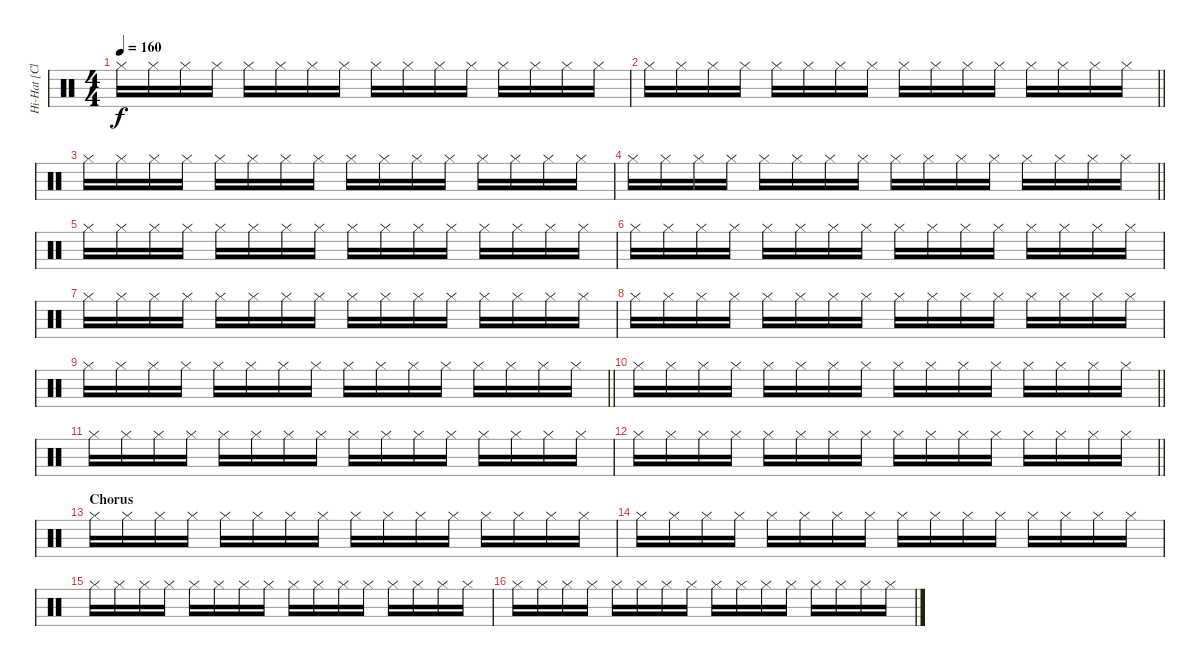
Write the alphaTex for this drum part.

\track ("Hi-Hat [Closed]" "Hi-Hat [Cl") {instrument percussion}
\staff {score}
\articulation defaults
\ts (4 4)
\tempo 160
\clef neutral
\ks c "Hi-Hat (closed)".16{dy f} "Hi-Hat (closed)".16 "Hi-Hat (closed)".16 "Hi-Hat (closed)".16 "Hi-Hat (closed)".16 "Hi-Hat (closed)".16 "Hi-Hat (closed)".16 "Hi-Hat (closed)".16 "Hi-Hat (closed)".16 "Hi-Hat (closed)".16 "Hi-Hat (closed)".16 "Hi-Hat (closed)".16 "Hi-Hat (closed)".16 "Hi-Hat (closed)".16 "Hi-Hat (closed)".16 "Hi-Hat (closed)".16
|
\barLineRight lightlight "Hi-Hat (closed)".16 "Hi-Hat (closed)".16 "Hi-Hat (closed)".16 "Hi-Hat (closed)".16 "Hi-Hat (closed)".16 "Hi-Hat (closed)".16 "Hi-Hat (closed)".16 "Hi-Hat (closed)".16 "Hi-Hat (closed)".16 "Hi-Hat (closed)".16 "Hi-Hat (closed)".16 "Hi-Hat (closed)".16 "Hi-Hat (closed)".16 "Hi-Hat (closed)".16 "Hi-Hat (closed)".16 "Hi-Hat (closed)".16
|
"Hi-Hat (closed)".16 "Hi-Hat (closed)".16 "Hi-Hat (closed)".16 "Hi-Hat (closed)".16 "Hi-Hat (closed)".16 "Hi-Hat (closed)".16 "Hi-Hat (closed)".16 "Hi-Hat (closed)".16 "Hi-Hat (closed)".16 "Hi-Hat (closed)".16 "Hi-Hat (closed)".16 "Hi-Hat (closed)".16 "Hi-Hat (closed)".16 "Hi-Hat (closed)".16 "Hi-Hat (closed)".16 "Hi-Hat (closed)".16 |
\barLineRight lightlight "Hi-Hat (closed)".16 "Hi-Hat (closed)".16 "Hi-Hat (closed)".16 "Hi-Hat (closed)".16 "Hi-Hat (closed)".16 "Hi-Hat (closed)".16 "Hi-Hat (closed)".16 "Hi-Hat (closed)".16 "Hi-Hat (closed)".16 "Hi-Hat (closed)".16 "Hi-Hat (closed)".16 "Hi-Hat (closed)".16 "Hi-Hat (closed)".16 "Hi-Hat (closed)".16 "Hi-Hat (closed)".16 "Hi-Hat (closed)".16
|
"Hi-Hat (closed)".16 "Hi-Hat (closed)".16 "Hi-Hat (closed)".16 "Hi-Hat (closed)".16 "Hi-Hat (closed)".16 "Hi-Hat (closed)".16 "Hi-Hat (closed)".16 "Hi-Hat (closed)".16 "Hi-Hat (closed)".16 "Hi-Hat (closed)".16 "Hi-Hat (closed)".16 "Hi-Hat (closed)".16 "Hi-Hat (closed)".16 "Hi-Hat (closed)".16 "Hi-Hat (closed)".16 "Hi-Hat (closed)".16 |
"Hi-Hat (closed)".16 "Hi-Hat (closed)".16 "Hi-Hat (closed)".16 "Hi-Hat (closed)".16 "Hi-Hat (closed)".16 "Hi-Hat (closed)".16 "Hi-Hat (closed)".16 "Hi-Hat (closed)".16 "Hi-Hat (closed)".16 "Hi-Hat (closed)".16 "Hi-Hat (closed)".16 "Hi-Hat (closed)".16 "Hi-Hat (closed)".16 "Hi-Hat (closed)".16 "Hi-Hat (closed)".16 "Hi-Hat (closed)".16 |
"Hi-Hat (closed)".16 "Hi-Hat (closed)".16 "Hi-Hat (closed)".16 "Hi-Hat (closed)".16 "Hi-Hat (closed)".16 "Hi-Hat (closed)".16 "Hi-Hat (closed)".16 "Hi-Hat (closed)".16 "Hi-Hat (closed)".16 "Hi-Hat (closed)".16 "Hi-Hat (closed)".16 "Hi-Hat (closed)".16 "Hi-Hat (closed)".16 "Hi-Hat (closed)".16 "Hi-Hat (closed)".16 "Hi-Hat (closed)".16 |
"Hi-Hat (closed)".16 "Hi-Hat (closed)".16 "Hi-Hat (closed)".16 "Hi-Hat (closed)".16 "Hi-Hat (closed)".16 "Hi-Hat (closed)".16 "Hi-Hat (closed)".16 "Hi-Hat (closed)".16 "Hi-Hat (closed)".16 "Hi-Hat (closed)".16 "Hi-Hat (closed)".16 "Hi-Hat (closed)".16 "Hi-Hat (closed)".16 "Hi-Hat (closed)".16 "Hi-Hat (closed)".16 "Hi-Hat (closed)".16 |
\barLineRight lightlight "Hi-Hat (closed)".16 "Hi-Hat (closed)".16 "Hi-Hat (closed)".16 "Hi-Hat (closed)".16 "Hi-Hat (closed)".16 "Hi-Hat (closed)".16 "Hi-Hat (closed)".16 "Hi-Hat (closed)".16 "Hi-Hat (closed)".16 "Hi-Hat (closed)".16 "Hi-Hat (closed)".16 "Hi-Hat (closed)".16 "Hi-Hat (closed)".16 "Hi-Hat (closed)".16 "Hi-Hat (closed)".16 "Hi-Hat (closed)".16
|
\barLineRight lightlight "Hi-Hat (closed)".16 "Hi-Hat (closed)".16 "Hi-Hat (closed)".16 "Hi-Hat (closed)".16 "Hi-Hat (closed)".16 "Hi-Hat (closed)".16 "Hi-Hat (closed)".16 "Hi-Hat (closed)".16 "Hi-Hat (closed)".16 "Hi-Hat (closed)".16 "Hi-Hat (closed)".16 "Hi-Hat (closed)".16 "Hi-Hat (closed)".16 "Hi-Hat (closed)".16 "Hi-Hat (closed)".16 "Hi-Hat (closed)".16
|
"Hi-Hat (closed)".16 "Hi-Hat (closed)".16 "Hi-Hat (closed)".16 "Hi-Hat (closed)".16 "Hi-Hat (closed)".16 "Hi-Hat (closed)".16 "Hi-Hat (closed)".16 "Hi-Hat (closed)".16 "Hi-Hat (closed)".16 "Hi-Hat (closed)".16 "Hi-Hat (closed)".16 "Hi-Hat (closed)".16 "Hi-Hat (closed)".16 "Hi-Hat (closed)".16 "Hi-Hat (closed)".16 "Hi-Hat (closed)".16 |
\barLineRight lightlight "Hi-Hat (closed)".16 "Hi-Hat (closed)".16 "Hi-Hat (closed)".16 "Hi-Hat (closed)".16 "Hi-Hat (closed)".16 "Hi-Hat (closed)".16 "Hi-Hat (closed)".16 "Hi-Hat (closed)".16 "Hi-Hat (closed)".16 "Hi-Hat (closed)".16 "Hi-Hat (closed)".16 "Hi-Hat (closed)".16 "Hi-Hat (closed)".16 "Hi-Hat (closed)".16 "Hi-Hat (closed)".16 "Hi-Hat (closed)".16
|
\section ("" "Chorus")
"Hi-Hat (closed)".16 "Hi-Hat (closed)".16 "Hi-Hat (closed)".16 "Hi-Hat (closed)".16 "Hi-Hat (closed)".16 "Hi-Hat (closed)".16 "Hi-Hat (closed)".16 "Hi-Hat (closed)".16 "Hi-Hat (closed)".16 "Hi-Hat (closed)".16 "Hi-Hat (closed)".16 "Hi-Hat (closed)".16 "Hi-Hat (closed)".16 "Hi-Hat (closed)".16 "Hi-Hat (closed)".16 "Hi-Hat (closed)".16 |
"Hi-Hat (closed)".16 "Hi-Hat (closed)".16 "Hi-Hat (closed)".16 "Hi-Hat (closed)".16 "Hi-Hat (closed)".16 "Hi-Hat (closed)".16 "Hi-Hat (closed)".16 "Hi-Hat (closed)".16 "Hi-Hat (closed)".16 "Hi-Hat (closed)".16 "Hi-Hat (closed)".16 "Hi-Hat (closed)".16 "Hi-Hat (closed)".16 "Hi-Hat (closed)".16 "Hi-Hat (closed)".16 "Hi-Hat (closed)".16 |
"Hi-Hat (closed)".16 "Hi-Hat (closed)".16 "Hi-Hat (closed)".16 "Hi-Hat (closed)".16 "Hi-Hat (closed)".16 "Hi-Hat (closed)".16 "Hi-Hat (closed)".16 "Hi-Hat (closed)".16 "Hi-Hat (closed)".16 "Hi-Hat (closed)".16 "Hi-Hat (closed)".16 "Hi-Hat (closed)".16 "Hi-Hat (closed)".16 "Hi-Hat (closed)".16 "Hi-Hat (closed)".16 "Hi-Hat (closed)".16 |
"Hi-Hat (closed)".16 "Hi-Hat (closed)".16 "Hi-Hat (closed)".16 "Hi-Hat (closed)".16 "Hi-Hat (closed)".16 "Hi-Hat (closed)".16 "Hi-Hat (closed)".16 "Hi-Hat (closed)".16 "Hi-Hat (closed)".16 "Hi-Hat (closed)".16 "Hi-Hat (closed)".16 "Hi-Hat (closed)".16 "Hi-Hat (closed)".16 "Hi-Hat (closed)".16 "Hi-Hat (closed)".16 "Hi-Hat (closed)".16
